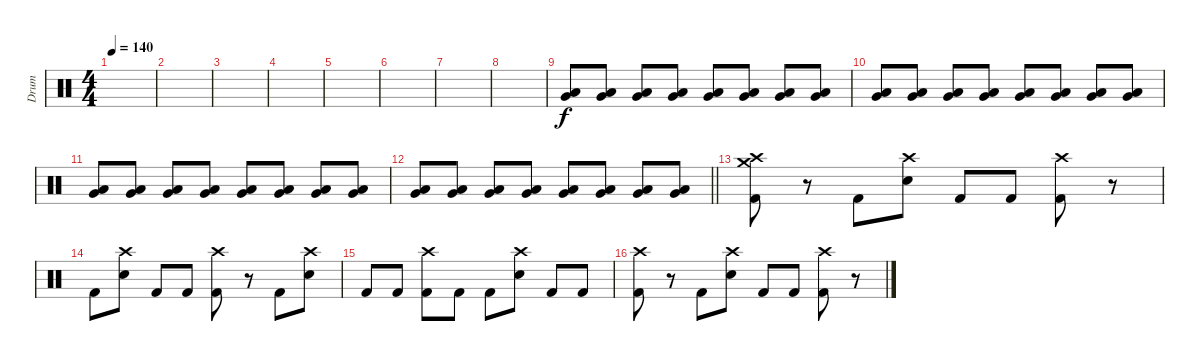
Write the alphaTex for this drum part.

\track ("Drum" "Drum") {instrument percussion}
\staff {score}
\articulation defaults
\ts (4 4)
\tempo 140
\clef neutral
\ks c
|
|
|
|
|
|
|
|
("Low Floor Tom (hit)" "Very Low Tom (hit)").8{volume 0} ("Low Floor Tom (hit)" "Very Low Tom (hit)").8{volume 16} ("Low Floor Tom (hit)" "Very Low Tom (hit)").8 ("Low Floor Tom (hit)" "Very Low Tom (hit)").8 ("Low Floor Tom (hit)" "Very Low Tom (hit)").8 ("Low Floor Tom (hit)" "Very Low Tom (hit)").8 ("Low Floor Tom (hit)" "Very Low Tom (hit)").8 ("Low Floor Tom (hit)" "Very Low Tom (hit)").8 |
("Low Floor Tom (hit)" "Very Low Tom (hit)").8 ("Low Floor Tom (hit)" "Very Low Tom (hit)").8 ("Low Floor Tom (hit)" "Very Low Tom (hit)").8 ("Low Floor Tom (hit)" "Very Low Tom (hit)").8 ("Low Floor Tom (hit)" "Very Low Tom (hit)").8 ("Low Floor Tom (hit)" "Very Low Tom (hit)").8 ("Low Floor Tom (hit)" "Very Low Tom (hit)").8 ("Low Floor Tom (hit)" "Very Low Tom (hit)").8 |
("Low Floor Tom (hit)" "Very Low Tom (hit)").8 ("Low Floor Tom (hit)" "Very Low Tom (hit)").8 ("Low Floor Tom (hit)" "Very Low Tom (hit)").8 ("Low Floor Tom (hit)" "Very Low Tom (hit)").8 ("Low Floor Tom (hit)" "Very Low Tom (hit)").8 ("Low Floor Tom (hit)" "Very Low Tom (hit)").8 ("Low Floor Tom (hit)" "Very Low Tom (hit)").8 ("Low Floor Tom (hit)" "Very Low Tom (hit)").8 |
\barLineRight lightlight
("Low Floor Tom (hit)" "Very Low Tom (hit)").8 ("Low Floor Tom (hit)" "Very Low Tom (hit)").8 ("Low Floor Tom (hit)" "Very Low Tom (hit)").8 ("Low Floor Tom (hit)" "Very Low Tom (hit)").8 ("Low Floor Tom (hit)" "Very Low Tom (hit)").8 ("Low Floor Tom (hit)" "Very Low Tom (hit)").8 ("Low Floor Tom (hit)" "Very Low Tom (hit)").8 ("Low Floor Tom (hit)" "Very Low Tom (hit)").8 |
\section ("" "")
("Crash high (hit)" "Crash medium (hit)" "Kick (hit) 2").8 r.8 "Kick (hit) 2".8 ("Crash high (hit)" "Snare (hit) 2").8 "Kick (hit) 2".8 "Kick (hit) 2".8 ("Crash high (hit)" "Kick (hit) 2").8 r.8 |
"Kick (hit) 2".8 ("Crash high (hit)" "Snare (hit) 2").8 "Kick (hit) 2".8 "Kick (hit) 2".8 ("Crash high (hit)" "Kick (hit) 2").8 r.8 "Kick (hit) 2".8 ("Crash high (hit)" "Snare (hit) 2").8 |
"Kick (hit) 2".8 "Kick (hit) 2".8 ("Crash high (hit)" "Kick (hit) 2").8 "Kick (hit) 2".8 "Kick (hit) 2".8 ("Crash high (hit)" "Snare (hit) 2").8 "Kick (hit) 2".8 "Kick (hit) 2".8 |
("Crash high (hit)" "Kick (hit) 2").8 r.8 "Kick (hit) 2".8 ("Crash high (hit)" "Snare (hit) 2").8 "Kick (hit) 2".8 "Kick (hit) 2".8 ("Crash high (hit)" "Kick (hit) 2").8 r.8
